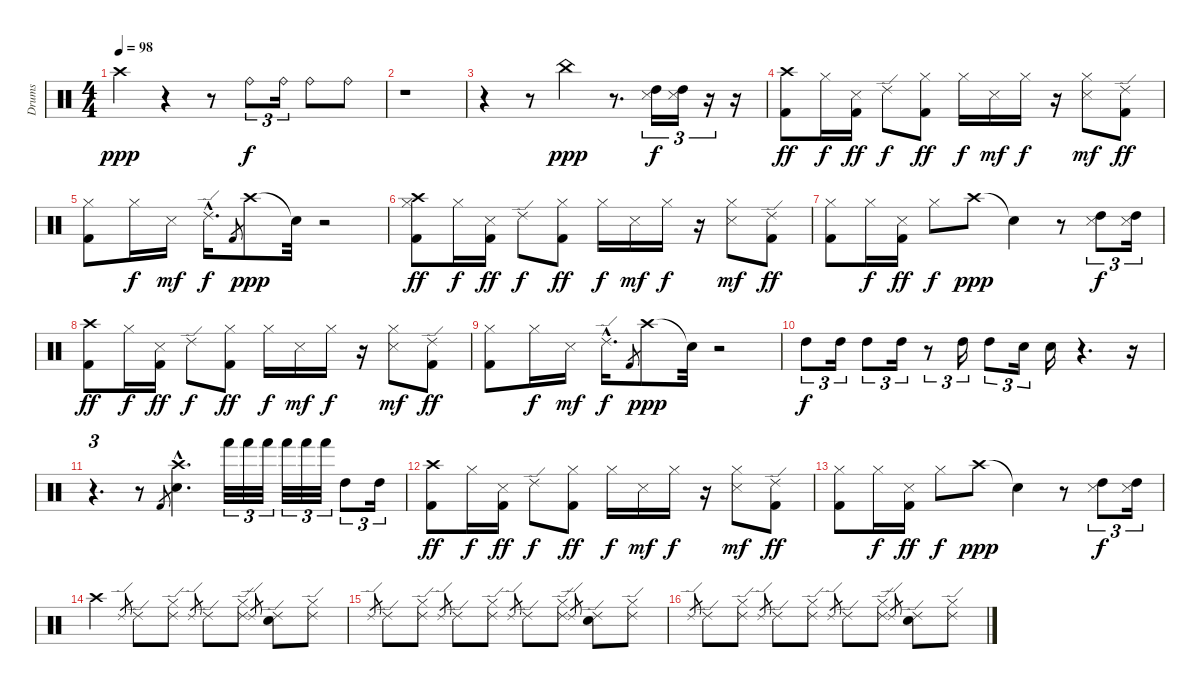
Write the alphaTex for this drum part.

\track ("Drums" "Drums") {instrument percussion}
\staff {score}
\articulation defaults
\ts (4 4)
\tempo 98
\clef neutral
\ks c "Crash high (hit)".4{dy ppp}
r.4 r.8 "Ride (bell)".8{tu (3 2) dy f} "Ride (bell)".16{tu (3 2)} "Ride (bell)".8 "Ride (bell)".8 |
r.1 |
r.4 r.8 "China (hit)".4{dy ppp} r.8{d} ("High Tom (hit)" "Snare (side stick) 3").16{tu (3 2) dy f} ("High Tom (hit)" "Snare (side stick) 3").16{tu (3 2)} r.16{tu (3 2)} r.16 |
("Crash high (hit)" "Kick (hit) 2").8{dy ff} "Hi-Hat (closed)".16{dy f} ("Snare (side stick) 3" "Kick (hit) 2").16{dy ff} "Ride (edge) 2".8{dy f} ("Hi-Hat (closed)" "Kick (hit) 2").8{dy ff} "Hi-Hat (closed)".16{dy f} "Snare (side stick) 3".16{dy mf} "Hi-Hat (closed)".16{dy f} r.16 ("Hi-Hat (closed)" "Snare (side stick) 3").8{dy mf} ("Ride (edge) 2" "Kick (hit) 2").8{dy ff} |
("Hi-Hat (closed)" "Kick (hit) 2").8 "Hi-Hat (closed)".16{dy f} "Snare (side stick) 3".16{dy mf} "Ride (edge) 2"{hac}.16{d dy f} "Kick (hit) 2".8{gr} "Crash high (hit)".8{dy ppp} "Snare (hit)"{t}.32 r.2 |
("Hi-Hat (closed)" "Crash high (hit)" "Kick (hit) 2").8{dy ff} "Hi-Hat (closed)".16{dy f} ("Snare (side stick) 3" "Kick (hit) 2").16{dy ff} "Ride (edge) 2".8{dy f} ("Hi-Hat (closed)" "Kick (hit) 2").8{dy ff} "Hi-Hat (closed)".16{dy f} "Snare (side stick) 3".16{dy mf} "Hi-Hat (closed)".16{dy f} r.16 ("Hi-Hat (closed)" "Snare (side stick) 3").8{dy mf} ("Ride (edge) 2" "Kick (hit) 2").8{dy ff} |
("Hi-Hat (closed)" "Kick (hit) 2").8 "Hi-Hat (closed)".16{dy f} ("Snare (side stick) 3" "Kick (hit) 2").16{dy ff} "Hi-Hat (closed)".8{dy f} "Crash high (hit)".8{dy ppp} "Snare (hit)"{t}.4 r.8 ("High Tom (hit)" "Snare (side stick) 3").8{tu (3 2) dy f} ("High Tom (hit)" "Snare (side stick) 3").16{tu (3 2)} |
("Crash high (hit)" "Kick (hit) 2").8{dy ff} "Hi-Hat (closed)".16{dy f} ("Snare (side stick) 3" "Kick (hit) 2").16{dy ff} "Ride (edge) 2".8{dy f} ("Hi-Hat (closed)" "Kick (hit) 2").8{dy ff} "Hi-Hat (closed)".16{dy f} "Snare (side stick) 3".16{dy mf} "Hi-Hat (closed)".16{dy f} r.16 ("Hi-Hat (closed)" "Snare (side stick) 3").8{dy mf} ("Ride (edge) 2" "Kick (hit) 2").8{dy ff} |
("Hi-Hat (closed)" "Kick (hit) 2").8 "Hi-Hat (closed)".16{dy f} "Snare (side stick) 3".16{dy mf} "Ride (edge) 2"{hac}.16{d dy f} "Kick (hit) 2".8{gr} "Crash high (hit)".8{dy ppp} "Snare (hit)"{t}.32 r.2 |
"High Tom (hit)".8{tu (3 2) dy f} "High Tom (hit)".16{tu (3 2)} "High Tom (hit)".8{tu (3 2)} "High Tom (hit)".16{tu (3 2)} r.8{tu (3 2)} "High Tom (hit)".16{tu (3 2)} "High Tom (hit)".8{tu (3 2)} "Snare (hit) 2".16{tu (3 2)} "Snare (hit) 2".16 r.4{d} r.16 |
r.4{d tu (3 2)} r.8 "Kick (hit) 2".8{gr} ("Crash high (hit)"{hac} "Snare (hit) 2"{hac}).4{d} "Hand (hit)".32{tu (3 2)} "Hand (hit)".32{tu (3 2)} "Hand (hit)".32{tu (3 2)} "Hand (hit)".32{tu (3 2)} "Hand (hit)".32{tu (3 2)} "Hand (hit)".32{tu (3 2)} "High Tom (hit)".8{tu (3 2)} "High Tom (hit)".16{tu (3 2)} |
("Crash high (hit)" "Kick (hit) 2").8{dy ff} "Hi-Hat (closed)".16{dy f} ("Snare (side stick) 3" "Kick (hit) 2").16{dy ff} "Ride (edge) 2".8{dy f} ("Hi-Hat (closed)" "Kick (hit) 2").8{dy ff} "Hi-Hat (closed)".16{dy f} "Snare (side stick) 3".16{dy mf} "Hi-Hat (closed)".16{dy f} r.16 ("Hi-Hat (closed)" "Snare (side stick) 3").8{dy mf} ("Ride (edge) 2" "Kick (hit) 2").8{dy ff} |
("Hi-Hat (closed)" "Kick (hit) 2").8 "Hi-Hat (closed)".16{dy f} ("Snare (side stick) 3" "Kick (hit) 2").16{dy ff} "Hi-Hat (closed)".8{dy f} "Crash high (hit)".8{dy ppp} "Snare (hit)"{t}.4 r.8 ("High Tom (hit)" "Snare (side stick) 3").8{tu (3 2) dy f} ("High Tom (hit)" "Snare (side stick) 3").16{tu (3 2)} |
"Crash high (hit)".4 "Ride (edge) 2".8{gr} "Ride (edge) 2".8 ("Ride (edge) 2" "Hi-Hat (closed)").8 "Ride (edge) 2".8{gr} "Ride (edge) 2".8 ("Ride (edge) 2" "Hi-Hat (closed)").8 "Ride (edge) 2".8{gr} ("Ride (edge) 2" "Snare (hit) 2").8 ("Ride (edge) 2" "Hi-Hat (closed)").8 |
"Ride (edge) 2".8{gr} "Ride (edge) 2".8 ("Ride (edge) 2" "Hi-Hat (closed)").8 "Ride (edge) 2".8{gr} "Ride (edge) 2".8 ("Ride (edge) 2" "Hi-Hat (closed)").8 "Ride (edge) 2".8{gr} "Ride (edge) 2".8 ("Ride (edge) 2" "Hi-Hat (closed)").8 "Ride (edge) 2".8{gr} ("Ride (edge) 2" "Snare (hit) 2").8 ("Ride (edge) 2" "Hi-Hat (closed)").8 |
"Ride (edge) 2".8{gr} "Ride (edge) 2".8 ("Ride (edge) 2" "Hi-Hat (closed)").8 "Ride (edge) 2".8{gr} "Ride (edge) 2".8 ("Ride (edge) 2" "Hi-Hat (closed)").8 "Ride (edge) 2".8{gr} "Ride (edge) 2".8 ("Ride (edge) 2" "Hi-Hat (closed)").8 "Ride (edge) 2".8{gr} ("Ride (edge) 2" "Snare (hit) 2").8 ("Ride (edge) 2" "Hi-Hat (closed)").8
